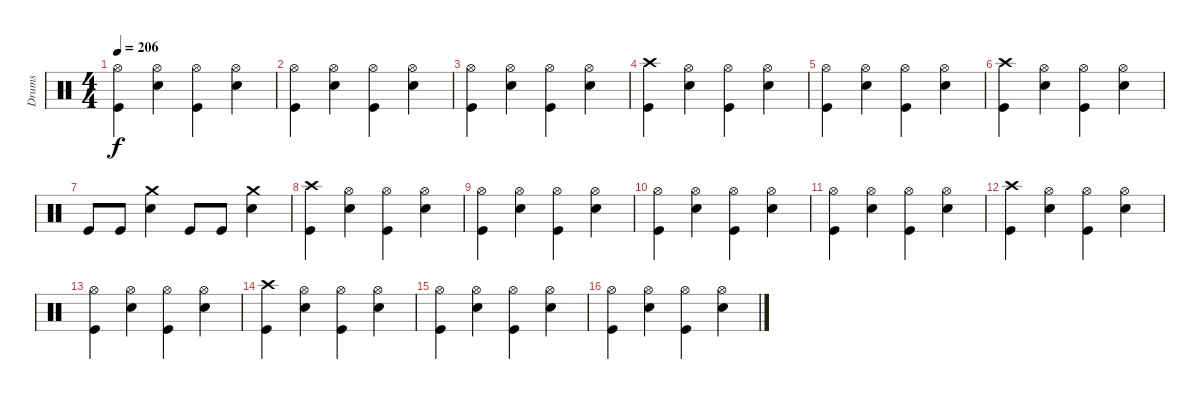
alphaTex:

\track ("Drums" "Drums") {instrument percussion}
\staff {score}
\articulation defaults
\ts (4 4)
\tempo 206
\clef neutral
\ks c
("Hi-Hat (open)" "Kick (hit)").4{dy f} ("Hi-Hat (open)" "Electric Snare (hit)").4 ("Hi-Hat (open)" "Kick (hit)").4 ("Hi-Hat (open)" "Electric Snare (hit)").4 |
("Hi-Hat (open)" "Kick (hit)").4 ("Hi-Hat (open)" "Electric Snare (hit)").4 ("Hi-Hat (open)" "Kick (hit)").4 ("Hi-Hat (open)" "Electric Snare (hit)").4 |
("Hi-Hat (open)" "Kick (hit)").4 ("Hi-Hat (open)" "Electric Snare (hit)").4 ("Hi-Hat (open)" "Kick (hit)").4 ("Hi-Hat (open)" "Electric Snare (hit)").4 |
("Crash high (hit)" "Kick (hit)").4 ("Hi-Hat (open)" "Electric Snare (hit)").4 ("Hi-Hat (open)" "Kick (hit)").4 ("Hi-Hat (open)" "Electric Snare (hit)").4 |
("Hi-Hat (open)" "Kick (hit)").4 ("Hi-Hat (open)" "Electric Snare (hit)").4 ("Hi-Hat (open)" "Kick (hit)").4 ("Hi-Hat (open)" "Electric Snare (hit)").4 |
("Crash high (hit)" "Kick (hit)").4 ("Hi-Hat (open)" "Electric Snare (hit)").4 ("Hi-Hat (open)" "Kick (hit)").4 ("Hi-Hat (open)" "Electric Snare (hit)").4 |
"Kick (hit)".8 "Kick (hit)".8 ("Crash medium (hit)" "Electric Snare (hit)").4 "Kick (hit)".8 "Kick (hit)".8 ("Crash medium (hit)" "Electric Snare (hit)").4 |
("Crash high (hit)" "Kick (hit)").4 ("Hi-Hat (open)" "Electric Snare (hit)").4 ("Hi-Hat (open)" "Kick (hit)").4 ("Hi-Hat (open)" "Electric Snare (hit)").4 |
("Hi-Hat (open)" "Kick (hit)").4 ("Hi-Hat (open)" "Electric Snare (hit)").4 ("Hi-Hat (open)" "Kick (hit)").4 ("Hi-Hat (open)" "Electric Snare (hit)").4 |
("Hi-Hat (open)" "Kick (hit)").4 ("Hi-Hat (open)" "Electric Snare (hit)").4 ("Hi-Hat (open)" "Kick (hit)").4 ("Hi-Hat (open)" "Electric Snare (hit)").4 |
("Hi-Hat (open)" "Kick (hit)").4 ("Hi-Hat (open)" "Electric Snare (hit)").4 ("Hi-Hat (open)" "Kick (hit)").4 ("Hi-Hat (open)" "Electric Snare (hit)").4 |
("Crash high (hit)" "Kick (hit)").4 ("Hi-Hat (open)" "Electric Snare (hit)").4 ("Hi-Hat (open)" "Kick (hit)").4 ("Hi-Hat (open)" "Electric Snare (hit)").4 |
("Hi-Hat (open)" "Kick (hit)").4 ("Hi-Hat (open)" "Electric Snare (hit)").4 ("Hi-Hat (open)" "Kick (hit)").4 ("Hi-Hat (open)" "Electric Snare (hit)").4 |
("Crash high (hit)" "Kick (hit)").4 ("Hi-Hat (open)" "Electric Snare (hit)").4 ("Hi-Hat (open)" "Kick (hit)").4 ("Hi-Hat (open)" "Electric Snare (hit)").4 |
("Hi-Hat (open)" "Kick (hit)").4 ("Hi-Hat (open)" "Electric Snare (hit)").4 ("Hi-Hat (open)" "Kick (hit)").4 ("Hi-Hat (open)" "Electric Snare (hit)").4 |
("Hi-Hat (open)" "Kick (hit)").4 ("Hi-Hat (open)" "Electric Snare (hit)").4 ("Hi-Hat (open)" "Kick (hit)").4 ("Hi-Hat (open)" "Electric Snare (hit)").4
